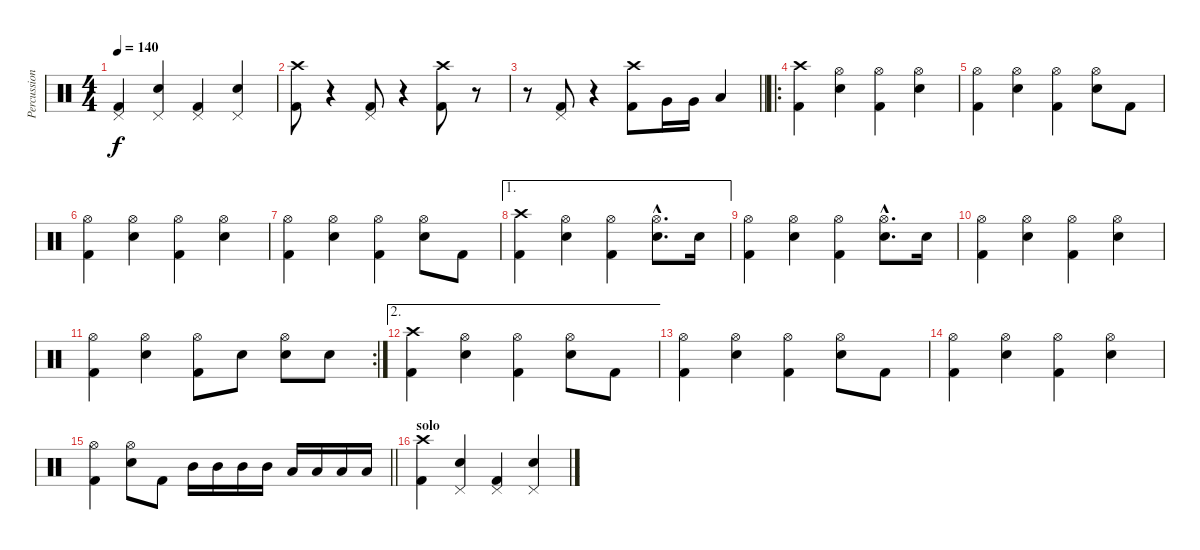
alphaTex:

\track ("Percussion" "Percussion") {instrument percussion}
\staff {score}
\articulation defaults
\ts (4 4)
\tempo 140
\clef neutral
\ks c
("Pedal Hi-Hat (hit)" "Kick (hit) 2").4{dy f} ("Pedal Hi-Hat (hit)" "Snare (hit) 2").4 ("Pedal Hi-Hat (hit)" "Kick (hit) 2").4 ("Pedal Hi-Hat (hit)" "Snare (hit) 2").4 |
("Crash high (hit)" "Kick (hit) 2").8 r.4 ("Pedal Hi-Hat (hit)" "Kick (hit) 2").8 r.4 ("Crash high (hit)" "Kick (hit) 2").8 r.8 |
\barLineRight lightlight
r.8 ("Pedal Hi-Hat (hit)" "Kick (hit) 2").8 r.4 ("Crash high (hit)" "Kick (hit) 2").8 "Very Low Tom (hit)".16 "Very Low Tom (hit)".16 "Low Tom (hit)".4 |
\ro
\section ("" "")
("Crash high (hit)" "Kick (hit) 2").4 ("Hi-Hat (open)" "Snare (hit) 2").4 ("Hi-Hat (open)" "Kick (hit) 2").4 ("Hi-Hat (open)" "Snare (hit) 2").4 |
("Hi-Hat (open)" "Kick (hit) 2").4 ("Hi-Hat (open)" "Snare (hit) 2").4 ("Hi-Hat (open)" "Kick (hit) 2").4 ("Hi-Hat (open)" "Snare (hit) 2").8 "Kick (hit) 2".8 |
("Hi-Hat (open)" "Kick (hit) 2").4 ("Hi-Hat (open)" "Snare (hit) 2").4 ("Hi-Hat (open)" "Kick (hit) 2").4 ("Hi-Hat (open)" "Snare (hit) 2").4 |
("Hi-Hat (open)" "Kick (hit) 2").4 ("Hi-Hat (open)" "Snare (hit) 2").4 ("Hi-Hat (open)" "Kick (hit) 2").4 ("Hi-Hat (open)" "Snare (hit) 2").8 "Kick (hit) 2".8 |
\ae 1
("Crash high (hit)" "Kick (hit) 2").4 ("Hi-Hat (open)" "Snare (hit) 2").4 ("Hi-Hat (open)" "Kick (hit) 2").4 ("Hi-Hat (open)"{hac} "Snare (hit) 2"{hac}).8{d} "Snare (hit) 2".16 |
("Hi-Hat (open)" "Kick (hit) 2").4 ("Hi-Hat (open)" "Snare (hit) 2").4 ("Hi-Hat (open)" "Kick (hit) 2").4 ("Hi-Hat (open)"{hac} "Snare (hit) 2"{hac}).8{d} "Snare (hit) 2".16 |
("Hi-Hat (open)" "Kick (hit) 2").4 ("Hi-Hat (open)" "Snare (hit) 2").4 ("Hi-Hat (open)" "Kick (hit) 2").4 ("Hi-Hat (open)" "Snare (hit) 2").4 |
\rc 2
("Hi-Hat (open)" "Kick (hit) 2").4 ("Hi-Hat (open)" "Snare (hit) 2").4 ("Hi-Hat (open)" "Kick (hit) 2").8 "Snare (hit) 2".8 ("Hi-Hat (open)" "Snare (hit) 2").8 "Snare (hit) 2".8 |
\ae 2
("Crash high (hit)" "Kick (hit) 2").4 ("Hi-Hat (open)" "Snare (hit) 2").4 ("Hi-Hat (open)" "Kick (hit) 2").4 ("Hi-Hat (open)" "Snare (hit) 2").8 "Kick (hit) 2".8 |
("Hi-Hat (open)" "Kick (hit) 2").4 ("Hi-Hat (open)" "Snare (hit) 2").4 ("Hi-Hat (open)" "Kick (hit) 2").4 ("Hi-Hat (open)" "Snare (hit) 2").8 "Kick (hit) 2".8 |
("Hi-Hat (open)" "Kick (hit) 2").4 ("Hi-Hat (open)" "Snare (hit) 2").4 ("Hi-Hat (open)" "Kick (hit) 2").4 ("Hi-Hat (open)" "Snare (hit) 2").4 |
\barLineRight lightlight
("Hi-Hat (open)" "Kick (hit) 2").4 ("Hi-Hat (open)" "Snare (hit) 2").8 "Kick (hit) 2".8 "Mid Tom (hit)".16 "Mid Tom (hit)".16 "Mid Tom (hit)".16 "Mid Tom (hit)".16 "Low Tom (hit)".16 "Low Tom (hit)".16 "Low Tom (hit)".16 "Low Tom (hit)".16 |
\section ("" "solo")
("Crash high (hit)" "Kick (hit) 2").4 ("Pedal Hi-Hat (hit)" "Snare (hit) 2").4 ("Pedal Hi-Hat (hit)" "Kick (hit) 2").4 ("Pedal Hi-Hat (hit)" "Snare (hit) 2").4
